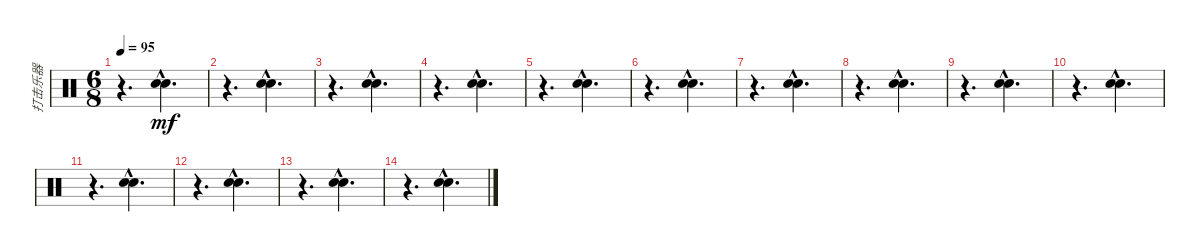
\track ("打击乐器" "打击乐器") {instrument percussion}
\staff {score}
\articulation defaults
\ts (6 8)
\tempo 95
\clef neutral
\ks c
r.4{d dy mf} ("Hand Clap (hit)"{hac} "Hand Clap (hit)"{hac}).4{d bd 240} |
r.4{d} ("Hand Clap (hit)"{hac} "Hand Clap (hit)"{hac}).4{d bd 240} |
r.4{d} ("Hand Clap (hit)"{hac} "Hand Clap (hit)"{hac}).4{d bd 240} |
r.4{d} ("Hand Clap (hit)"{hac} "Hand Clap (hit)"{hac}).4{d bd 240} |
r.4{d} ("Hand Clap (hit)"{hac} "Hand Clap (hit)"{hac}).4{d bd 240} |
r.4{d} ("Hand Clap (hit)"{hac} "Hand Clap (hit)"{hac}).4{d bd 240} |
r.4{d} ("Hand Clap (hit)"{hac} "Hand Clap (hit)"{hac}).4{d bd 240} |
r.4{d} ("Hand Clap (hit)"{hac} "Hand Clap (hit)"{hac}).4{d bd 240} |
r.4{d} ("Hand Clap (hit)"{hac} "Hand Clap (hit)"{hac}).4{d bd 240} |
r.4{d} ("Hand Clap (hit)"{hac} "Hand Clap (hit)"{hac}).4{d bd 240} |
r.4{d} ("Hand Clap (hit)"{hac} "Hand Clap (hit)"{hac}).4{d bd 240} |
r.4{d} ("Hand Clap (hit)"{hac} "Hand Clap (hit)"{hac}).4{d bd 240} |
r.4{d} ("Hand Clap (hit)"{hac} "Hand Clap (hit)"{hac}).4{d bd 240} |
r.4{d} ("Hand Clap (hit)"{hac} "Hand Clap (hit)"{hac}).4{d bd 240}
